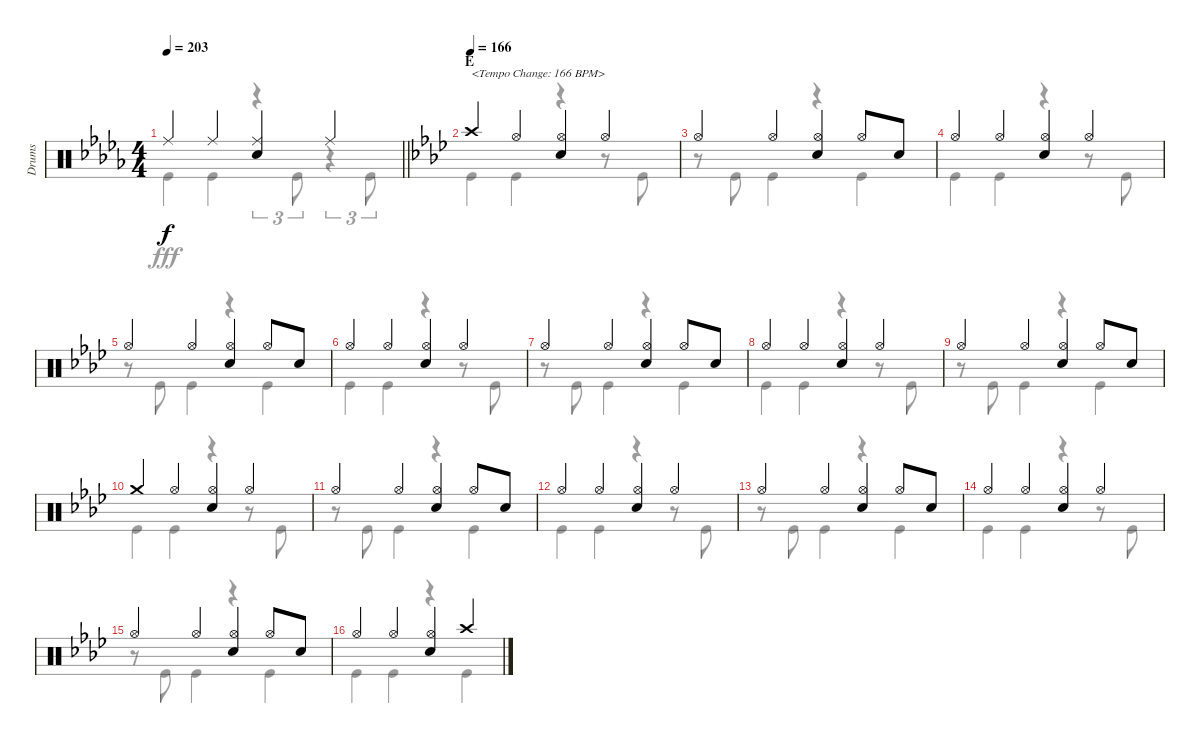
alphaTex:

\track ("Drums" "Drums") {instrument percussion}
\staff {score}
\articulation defaults
\voice
\ts (4 4)
\tempo 203
\clef neutral
\barLineRight lightlight
\ks db "Ride (middle)".4{dy f} "Ride (middle)".4
("Ride (middle)" "Snare (hit) 2").4 "Ride (middle)".4 |
\section ("" "E")
\tempo 166
\ks ab "Crash high (hit)".4{txt "<Tempo Change: 166 BPM>"} "Hi-Hat (open)".4
("Hi-Hat (open)" "Snare (hit) 2").4 "Hi-Hat (open)".4 |
"Hi-Hat (open)".4 "Hi-Hat (open)".4 ("Hi-Hat (open)" "Snare (hit) 2").4 "Hi-Hat (open)".8 "Snare (hit) 2".8 |
"Hi-Hat (open)".4 "Hi-Hat (open)".4 ("Hi-Hat (open)" "Snare (hit) 2").4 "Hi-Hat (open)".4 |
"Hi-Hat (open)".4 "Hi-Hat (open)".4 ("Hi-Hat (open)" "Snare (hit) 2").4 "Hi-Hat (open)".8 "Snare (hit) 2".8 |
"Hi-Hat (open)".4 "Hi-Hat (open)".4 ("Hi-Hat (open)" "Snare (hit) 2").4 "Hi-Hat (open)".4 |
"Hi-Hat (open)".4 "Hi-Hat (open)".4 ("Hi-Hat (open)" "Snare (hit) 2").4 "Hi-Hat (open)".8 "Snare (hit) 2".8 |
"Hi-Hat (open)".4 "Hi-Hat (open)".4 ("Hi-Hat (open)" "Snare (hit) 2").4 "Hi-Hat (open)".4 |
"Hi-Hat (open)".4 "Hi-Hat (open)".4 ("Hi-Hat (open)" "Snare (hit) 2").4 "Hi-Hat (open)".8 "Snare (hit) 2".8 |
"Crash medium (hit)".4 "Hi-Hat (open)".4 ("Hi-Hat (open)" "Snare (hit) 2").4 "Hi-Hat (open)".4 |
"Hi-Hat (open)".4 "Hi-Hat (open)".4 ("Hi-Hat (open)" "Snare (hit) 2").4 "Hi-Hat (open)".8 "Snare (hit) 2".8 |
"Hi-Hat (open)".4 "Hi-Hat (open)".4 ("Hi-Hat (open)" "Snare (hit) 2").4 "Hi-Hat (open)".4 |
"Hi-Hat (open)".4 "Hi-Hat (open)".4 ("Hi-Hat (open)" "Snare (hit) 2").4 "Hi-Hat (open)".8 "Snare (hit) 2".8 |
"Hi-Hat (open)".4 "Hi-Hat (open)".4 ("Hi-Hat (open)" "Snare (hit) 2").4 "Hi-Hat (open)".4 |
"Hi-Hat (open)".4 "Hi-Hat (open)".4 ("Hi-Hat (open)" "Snare (hit) 2").4 "Hi-Hat (open)".8 "Snare (hit) 2".8 |
"Hi-Hat (open)".4 "Hi-Hat (open)".4 ("Hi-Hat (open)" "Snare (hit) 2").4 "Crash high (hit)".4
\voice
\clef neutral
\ottava regular
\simile none
\barLineRight lightlight
\ks db "Kick (hit)".4{dy fff} "Kick (hit)".4
r.4{tu (3 2)} "Kick (hit)".8{tu (3 2)} r.4{tu (3 2)} "Kick (hit)".8{tu (3 2)} |
\ks ab "Kick (hit)".4 "Kick (hit)".4
r.4 r.8 "Kick (hit)".8 |
r.8 "Kick (hit)".8 "Kick (hit)".4 r.4 "Kick (hit)".4 |
"Kick (hit)".4 "Kick (hit)".4 r.4 r.8 "Kick (hit)".8 |
r.8 "Kick (hit)".8 "Kick (hit)".4 r.4 "Kick (hit)".4 |
"Kick (hit)".4 "Kick (hit)".4 r.4 r.8 "Kick (hit)".8 |
r.8 "Kick (hit)".8 "Kick (hit)".4 r.4 "Kick (hit)".4 |
"Kick (hit)".4 "Kick (hit)".4 r.4 r.8 "Kick (hit)".8 |
r.8 "Kick (hit)".8 "Kick (hit)".4 r.4 "Kick (hit)".4 |
"Kick (hit)".4 "Kick (hit)".4 r.4 r.8 "Kick (hit)".8 |
r.8 "Kick (hit)".8 "Kick (hit)".4 r.4 "Kick (hit)".4 |
"Kick (hit)".4 "Kick (hit)".4 r.4 r.8 "Kick (hit)".8 |
r.8 "Kick (hit)".8 "Kick (hit)".4 r.4 "Kick (hit)".4 |
"Kick (hit)".4 "Kick (hit)".4 r.4 r.8 "Kick (hit)".8 |
r.8 "Kick (hit)".8 "Kick (hit)".4 r.4 "Kick (hit)".4 |
"Kick (hit)".4 "Kick (hit)".4 r.4 "Kick (hit)".4
